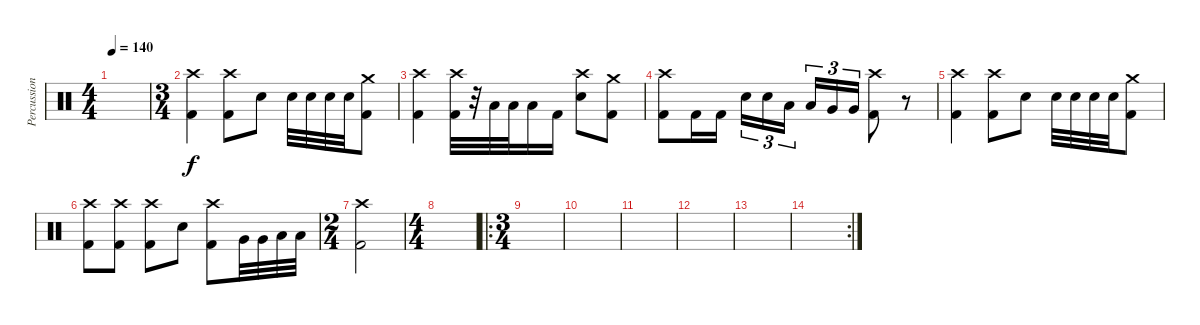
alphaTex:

\track ("Percussions" "Percussion") {instrument percussion}
\staff {score}
\articulation defaults
\ts (4 4)
\tempo 140
\clef neutral
\ks c
|
\ts (3 4)
("Kick (hit) 2" "Crash high (hit)").4{dy f} ("Kick (hit) 2" "Crash high (hit)").8 "Electric Snare (hit)".8 "Electric Snare (hit)".32 "Electric Snare (hit)".32 "Electric Snare (hit)".32 "Electric Snare (hit)".32 ("Kick (hit) 2" "Crash medium (hit)").8 |
("Kick (hit) 2" "Crash high (hit)").4 ("Kick (hit) 2" "Crash high (hit)").32 r.32 "Low Floor Tom (hit)".32 "Low Floor Tom (hit)".32 "Low Floor Tom (hit)".16 "Kick (hit) 2".16 ("Electric Snare (hit)" "Crash high (hit)").8 ("Kick (hit) 2" "Crash medium (hit)").8 |
("Kick (hit) 2" "Crash high (hit)").8 "Kick (hit) 2".16 "Kick (hit) 2".16 "Electric Snare (hit)".16{tu (3 2)} "Electric Snare (hit)".16{tu (3 2)} "Low Tom (hit)".16{tu (3 2) beam splitsecondary} "Low Tom (hit)".16{tu (3 2)} "Very Low Tom (hit)".16{tu (3 2)} "Very Low Tom (hit)".16{tu (3 2)} ("Kick (hit) 2" "Crash high (hit)").8 r.8 |
("Kick (hit) 2" "Crash high (hit)").4 ("Kick (hit) 2" "Crash high (hit)").8 "Electric Snare (hit)".8 "Electric Snare (hit)".32 "Electric Snare (hit)".32 "Electric Snare (hit)".32 "Electric Snare (hit)".32 ("Kick (hit) 2" "Crash medium (hit)").8 |
("Kick (hit) 2" "Crash high (hit)").8 ("Kick (hit) 2" "Crash high (hit)").8 ("Kick (hit) 2" "Crash high (hit)").8 "Electric Snare (hit)".8 ("Kick (hit) 2" "Crash high (hit)").8 "Very Low Tom (hit)".32 "Very Low Tom (hit)".32 "Low Tom (hit)".32 "Low Tom (hit)".32 |
\ts (2 4)
("Kick (hit) 2" "Crash high (hit)").2 |
\ts (4 4)
|
\ro
\ts (3 4)
|
|
|
|
|
\rc 2
